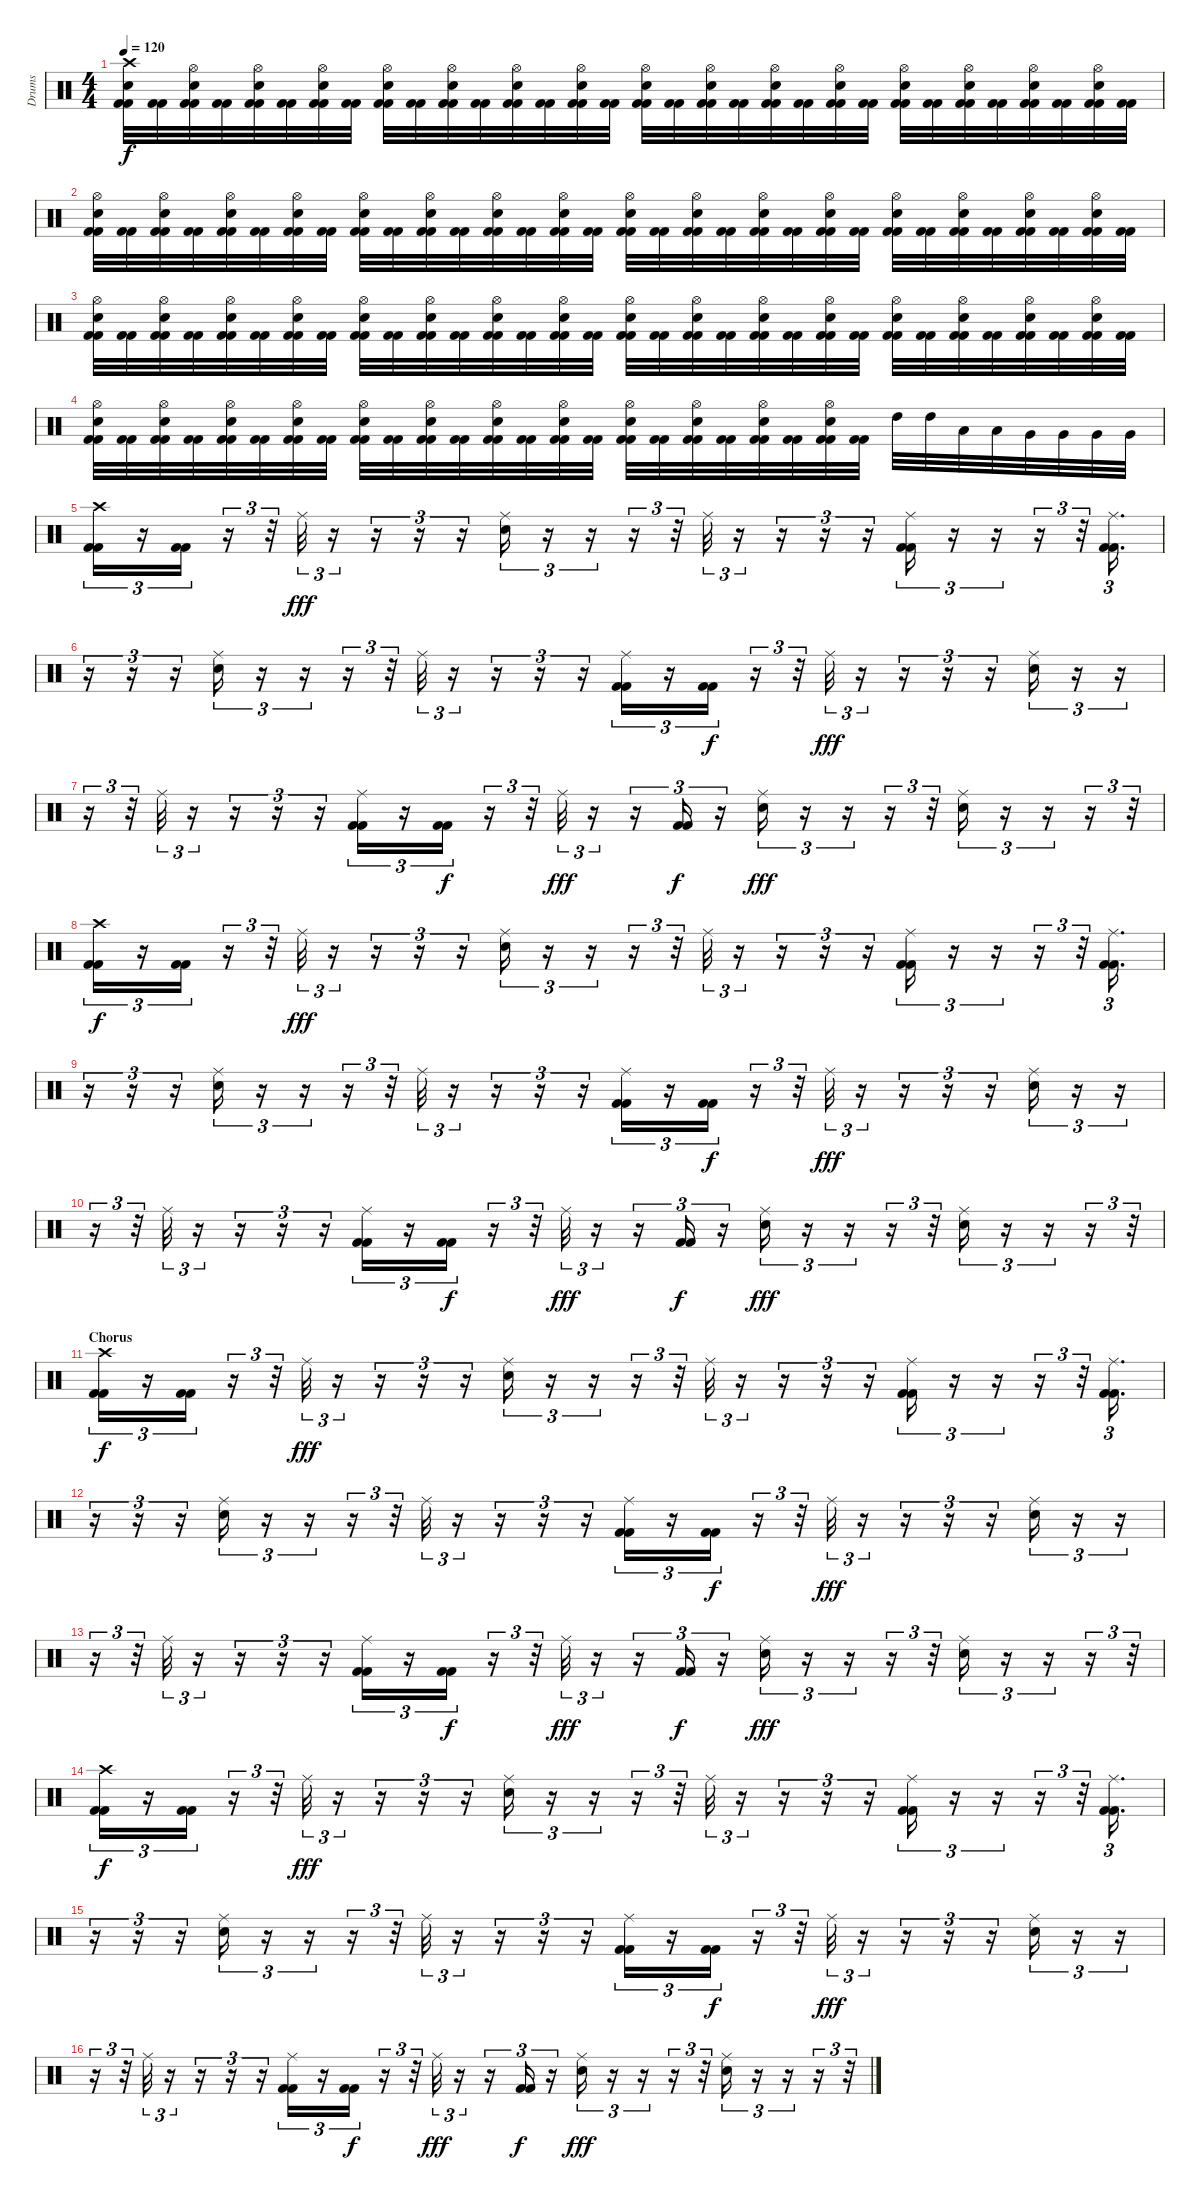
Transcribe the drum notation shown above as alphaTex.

\track ("Drums" "Drums") {instrument percussion}
\staff {score}
\articulation defaults
\ts (4 4)
\tempo 120
\clef neutral
\ks c
("Kick (hit) 2" "Kick (hit) 2" "Electric Snare (hit)" "Crash high (hit)").32{dy f} ("Kick (hit) 2" "Kick (hit) 2").32 ("Kick (hit) 2" "Kick (hit) 2" "Electric Snare (hit)" "Hi-Hat (open)").32 ("Kick (hit) 2" "Kick (hit) 2").32 ("Kick (hit) 2" "Kick (hit) 2" "Electric Snare (hit)" "Hi-Hat (open)").32 ("Kick (hit) 2" "Kick (hit) 2").32 ("Kick (hit) 2" "Kick (hit) 2" "Electric Snare (hit)" "Hi-Hat (open)").32 ("Kick (hit) 2" "Kick (hit) 2").32 ("Kick (hit) 2" "Kick (hit) 2" "Electric Snare (hit)" "Hi-Hat (open)").32 ("Kick (hit) 2" "Kick (hit) 2").32 ("Kick (hit) 2" "Kick (hit) 2" "Electric Snare (hit)" "Hi-Hat (open)").32 ("Kick (hit) 2" "Kick (hit) 2").32 ("Kick (hit) 2" "Kick (hit) 2" "Electric Snare (hit)" "Hi-Hat (open)").32 ("Kick (hit) 2" "Kick (hit) 2").32 ("Kick (hit) 2" "Kick (hit) 2" "Electric Snare (hit)" "Hi-Hat (open)").32 ("Kick (hit) 2" "Kick (hit) 2").32 ("Kick (hit) 2" "Kick (hit) 2" "Electric Snare (hit)" "Hi-Hat (open)").32 ("Kick (hit) 2" "Kick (hit) 2").32 ("Kick (hit) 2" "Kick (hit) 2" "Electric Snare (hit)" "Hi-Hat (open)").32 ("Kick (hit) 2" "Kick (hit) 2").32 ("Kick (hit) 2" "Kick (hit) 2" "Electric Snare (hit)" "Hi-Hat (open)").32 ("Kick (hit) 2" "Kick (hit) 2").32 ("Kick (hit) 2" "Kick (hit) 2" "Electric Snare (hit)" "Hi-Hat (open)").32 ("Kick (hit) 2" "Kick (hit) 2").32 ("Kick (hit) 2" "Kick (hit) 2" "Electric Snare (hit)" "Hi-Hat (open)").32 ("Kick (hit) 2" "Kick (hit) 2").32 ("Kick (hit) 2" "Kick (hit) 2" "Electric Snare (hit)" "Hi-Hat (open)").32 ("Kick (hit) 2" "Kick (hit) 2").32 ("Kick (hit) 2" "Kick (hit) 2" "Electric Snare (hit)" "Hi-Hat (open)").32 ("Kick (hit) 2" "Kick (hit) 2").32 ("Kick (hit) 2" "Kick (hit) 2" "Electric Snare (hit)" "Hi-Hat (open)").32 ("Kick (hit) 2" "Kick (hit) 2").32 |
("Kick (hit) 2" "Kick (hit) 2" "Electric Snare (hit)" "Hi-Hat (open)").32 ("Kick (hit) 2" "Kick (hit) 2").32 ("Kick (hit) 2" "Kick (hit) 2" "Electric Snare (hit)" "Hi-Hat (open)").32 ("Kick (hit) 2" "Kick (hit) 2").32 ("Kick (hit) 2" "Kick (hit) 2" "Electric Snare (hit)" "Hi-Hat (open)").32 ("Kick (hit) 2" "Kick (hit) 2").32 ("Kick (hit) 2" "Kick (hit) 2" "Electric Snare (hit)" "Hi-Hat (open)").32 ("Kick (hit) 2" "Kick (hit) 2").32 ("Kick (hit) 2" "Kick (hit) 2" "Electric Snare (hit)" "Hi-Hat (open)").32 ("Kick (hit) 2" "Kick (hit) 2").32 ("Kick (hit) 2" "Kick (hit) 2" "Electric Snare (hit)" "Hi-Hat (open)").32 ("Kick (hit) 2" "Kick (hit) 2").32 ("Kick (hit) 2" "Kick (hit) 2" "Electric Snare (hit)" "Hi-Hat (open)").32 ("Kick (hit) 2" "Kick (hit) 2").32 ("Kick (hit) 2" "Kick (hit) 2" "Electric Snare (hit)" "Hi-Hat (open)").32 ("Kick (hit) 2" "Kick (hit) 2").32 ("Kick (hit) 2" "Kick (hit) 2" "Electric Snare (hit)" "Hi-Hat (open)").32 ("Kick (hit) 2" "Kick (hit) 2").32 ("Kick (hit) 2" "Kick (hit) 2" "Electric Snare (hit)" "Hi-Hat (open)").32 ("Kick (hit) 2" "Kick (hit) 2").32 ("Kick (hit) 2" "Kick (hit) 2" "Electric Snare (hit)" "Hi-Hat (open)").32 ("Kick (hit) 2" "Kick (hit) 2").32 ("Kick (hit) 2" "Kick (hit) 2" "Electric Snare (hit)" "Hi-Hat (open)").32 ("Kick (hit) 2" "Kick (hit) 2").32 ("Kick (hit) 2" "Kick (hit) 2" "Electric Snare (hit)" "Hi-Hat (open)").32 ("Kick (hit) 2" "Kick (hit) 2").32 ("Kick (hit) 2" "Kick (hit) 2" "Electric Snare (hit)" "Hi-Hat (open)").32 ("Kick (hit) 2" "Kick (hit) 2").32 ("Kick (hit) 2" "Kick (hit) 2" "Electric Snare (hit)" "Hi-Hat (open)").32 ("Kick (hit) 2" "Kick (hit) 2").32 ("Kick (hit) 2" "Kick (hit) 2" "Electric Snare (hit)" "Hi-Hat (open)").32 ("Kick (hit) 2" "Kick (hit) 2").32 |
("Kick (hit) 2" "Kick (hit) 2" "Electric Snare (hit)" "Hi-Hat (open)").32 ("Kick (hit) 2" "Kick (hit) 2").32 ("Kick (hit) 2" "Kick (hit) 2" "Electric Snare (hit)" "Hi-Hat (open)").32 ("Kick (hit) 2" "Kick (hit) 2").32 ("Kick (hit) 2" "Kick (hit) 2" "Electric Snare (hit)" "Hi-Hat (open)").32 ("Kick (hit) 2" "Kick (hit) 2").32 ("Kick (hit) 2" "Kick (hit) 2" "Electric Snare (hit)" "Hi-Hat (open)").32 ("Kick (hit) 2" "Kick (hit) 2").32 ("Kick (hit) 2" "Kick (hit) 2" "Electric Snare (hit)" "Hi-Hat (open)").32 ("Kick (hit) 2" "Kick (hit) 2").32 ("Kick (hit) 2" "Kick (hit) 2" "Electric Snare (hit)" "Hi-Hat (open)").32 ("Kick (hit) 2" "Kick (hit) 2").32 ("Kick (hit) 2" "Kick (hit) 2" "Electric Snare (hit)" "Hi-Hat (open)").32 ("Kick (hit) 2" "Kick (hit) 2").32 ("Kick (hit) 2" "Kick (hit) 2" "Electric Snare (hit)" "Hi-Hat (open)").32 ("Kick (hit) 2" "Kick (hit) 2").32 ("Kick (hit) 2" "Kick (hit) 2" "Electric Snare (hit)" "Hi-Hat (open)").32 ("Kick (hit) 2" "Kick (hit) 2").32 ("Kick (hit) 2" "Kick (hit) 2" "Electric Snare (hit)" "Hi-Hat (open)").32 ("Kick (hit) 2" "Kick (hit) 2").32 ("Kick (hit) 2" "Kick (hit) 2" "Electric Snare (hit)" "Hi-Hat (open)").32 ("Kick (hit) 2" "Kick (hit) 2").32 ("Kick (hit) 2" "Kick (hit) 2" "Electric Snare (hit)" "Hi-Hat (open)").32 ("Kick (hit) 2" "Kick (hit) 2").32 ("Kick (hit) 2" "Kick (hit) 2" "Electric Snare (hit)" "Hi-Hat (open)").32 ("Kick (hit) 2" "Kick (hit) 2").32 ("Kick (hit) 2" "Kick (hit) 2" "Electric Snare (hit)" "Hi-Hat (open)").32 ("Kick (hit) 2" "Kick (hit) 2").32 ("Kick (hit) 2" "Kick (hit) 2" "Electric Snare (hit)" "Hi-Hat (open)").32 ("Kick (hit) 2" "Kick (hit) 2").32 ("Kick (hit) 2" "Kick (hit) 2" "Electric Snare (hit)" "Hi-Hat (open)").32 ("Kick (hit) 2" "Kick (hit) 2").32 |
("Kick (hit) 2" "Kick (hit) 2" "Electric Snare (hit)" "Hi-Hat (open)").32 ("Kick (hit) 2" "Kick (hit) 2").32 ("Kick (hit) 2" "Kick (hit) 2" "Electric Snare (hit)" "Hi-Hat (open)").32 ("Kick (hit) 2" "Kick (hit) 2").32 ("Kick (hit) 2" "Kick (hit) 2" "Electric Snare (hit)" "Hi-Hat (open)").32 ("Kick (hit) 2" "Kick (hit) 2").32 ("Kick (hit) 2" "Kick (hit) 2" "Electric Snare (hit)" "Hi-Hat (open)").32 ("Kick (hit) 2" "Kick (hit) 2").32 ("Kick (hit) 2" "Kick (hit) 2" "Electric Snare (hit)" "Hi-Hat (open)").32 ("Kick (hit) 2" "Kick (hit) 2").32 ("Kick (hit) 2" "Kick (hit) 2" "Electric Snare (hit)" "Hi-Hat (open)").32 ("Kick (hit) 2" "Kick (hit) 2").32 ("Kick (hit) 2" "Kick (hit) 2" "Electric Snare (hit)" "Hi-Hat (open)").32 ("Kick (hit) 2" "Kick (hit) 2").32 ("Kick (hit) 2" "Kick (hit) 2" "Electric Snare (hit)" "Hi-Hat (open)").32 ("Kick (hit) 2" "Kick (hit) 2").32 ("Kick (hit) 2" "Kick (hit) 2" "Electric Snare (hit)" "Hi-Hat (open)").32 ("Kick (hit) 2" "Kick (hit) 2").32 ("Kick (hit) 2" "Kick (hit) 2" "Electric Snare (hit)" "Hi-Hat (open)").32 ("Kick (hit) 2" "Kick (hit) 2").32 ("Kick (hit) 2" "Kick (hit) 2" "Electric Snare (hit)" "Hi-Hat (open)").32 ("Kick (hit) 2" "Kick (hit) 2").32 ("Kick (hit) 2" "Kick (hit) 2" "Electric Snare (hit)" "Hi-Hat (open)").32 ("Kick (hit) 2" "Kick (hit) 2").32 "High Tom (hit)".32 "High Tom (hit)".32 "Low Tom (hit)".32 "Low Tom (hit)".32 "Very Low Tom (hit)".32 "Very Low Tom (hit)".32 "Very Low Tom (hit)".32 "Very Low Tom (hit)".32 |
("Kick (hit) 2" "Kick (hit) 2" "Crash high (hit)").16{tu (3 2)} r.16{tu (3 2)} ("Kick (hit) 2" "Kick (hit) 2").16{tu (3 2)} r.16{tu (3 2)} r.32{tu (3 2)} "Ride (middle)".32{tu (3 2) dy fff} r.16{tu (3 2)} r.16{tu (3 2)} r.16{tu (3 2)} r.16{tu (3 2)} ("Electric Snare (hit)" "Ride (middle)").16{tu (3 2)} r.16{tu (3 2)} r.16{tu (3 2)} r.16{tu (3 2)} r.32{tu (3 2)} "Ride (middle)".32{tu (3 2)} r.16{tu (3 2)} r.16{tu (3 2)} r.16{tu (3 2)} r.16{tu (3 2)} ("Kick (hit) 2" "Kick (hit) 2" "Ride (middle)").16{tu (3 2)} r.16{tu (3 2)} r.16{tu (3 2)} r.16{tu (3 2)} r.32{tu (3 2)} ("Kick (hit) 2" "Kick (hit) 2" "Ride (middle)").16{d tu (3 2)} |
r.16{tu (3 2)} r.16{tu (3 2)} r.16{tu (3 2)} ("Electric Snare (hit)" "Ride (middle)").16{tu (3 2)} r.16{tu (3 2)} r.16{tu (3 2)} r.16{tu (3 2)} r.32{tu (3 2)} "Ride (middle)".32{tu (3 2)} r.16{tu (3 2)} r.16{tu (3 2)} r.16{tu (3 2)} r.16{tu (3 2)} ("Kick (hit) 2" "Kick (hit) 2" "Ride (middle)").16{tu (3 2)} r.16{tu (3 2)} ("Kick (hit) 2" "Kick (hit) 2").16{tu (3 2) dy f} r.16{tu (3 2)} r.32{tu (3 2)} "Ride (middle)".32{tu (3 2) dy fff} r.16{tu (3 2)} r.16{tu (3 2)} r.16{tu (3 2)} r.16{tu (3 2)} ("Electric Snare (hit)" "Ride (middle)").16{tu (3 2)} r.16{tu (3 2)} r.16{tu (3 2)} |
r.16{tu (3 2)} r.32{tu (3 2)} "Ride (middle)".32{tu (3 2)} r.16{tu (3 2)} r.16{tu (3 2)} r.16{tu (3 2)} r.16{tu (3 2)} ("Kick (hit) 2" "Kick (hit) 2" "Ride (middle)").16{tu (3 2)} r.16{tu (3 2)} ("Kick (hit) 2" "Kick (hit) 2").16{tu (3 2) dy f} r.16{tu (3 2)} r.32{tu (3 2)} "Ride (middle)".32{tu (3 2) dy fff} r.16{tu (3 2)} r.16{tu (3 2)} ("Kick (hit) 2" "Kick (hit) 2").16{tu (3 2) dy f} r.16{tu (3 2)} ("Electric Snare (hit)" "Ride (middle)").16{tu (3 2) dy fff} r.16{tu (3 2)} r.16{tu (3 2)} r.16{tu (3 2)} r.32{tu (3 2)} ("Electric Snare (hit)" "Ride (middle)").16{tu (3 2)} r.16{tu (3 2)} r.16{tu (3 2)} r.16{tu (3 2)} r.32{tu (3 2)} |
("Kick (hit) 2" "Kick (hit) 2" "Crash high (hit)").16{tu (3 2) dy f} r.16{tu (3 2)} ("Kick (hit) 2" "Kick (hit) 2").16{tu (3 2)} r.16{tu (3 2)} r.32{tu (3 2)} "Ride (middle)".32{tu (3 2) dy fff} r.16{tu (3 2)} r.16{tu (3 2)} r.16{tu (3 2)} r.16{tu (3 2)} ("Electric Snare (hit)" "Ride (middle)").16{tu (3 2)} r.16{tu (3 2)} r.16{tu (3 2)} r.16{tu (3 2)} r.32{tu (3 2)} "Ride (middle)".32{tu (3 2)} r.16{tu (3 2)} r.16{tu (3 2)} r.16{tu (3 2)} r.16{tu (3 2)} ("Kick (hit) 2" "Kick (hit) 2" "Ride (middle)").16{tu (3 2)} r.16{tu (3 2)} r.16{tu (3 2)} r.16{tu (3 2)} r.32{tu (3 2)} ("Kick (hit) 2" "Kick (hit) 2" "Ride (middle)").16{d tu (3 2)} |
r.16{tu (3 2)} r.16{tu (3 2)} r.16{tu (3 2)} ("Electric Snare (hit)" "Ride (middle)").16{tu (3 2)} r.16{tu (3 2)} r.16{tu (3 2)} r.16{tu (3 2)} r.32{tu (3 2)} "Ride (middle)".32{tu (3 2)} r.16{tu (3 2)} r.16{tu (3 2)} r.16{tu (3 2)} r.16{tu (3 2)} ("Kick (hit) 2" "Kick (hit) 2" "Ride (middle)").16{tu (3 2)} r.16{tu (3 2)} ("Kick (hit) 2" "Kick (hit) 2").16{tu (3 2) dy f} r.16{tu (3 2)} r.32{tu (3 2)} "Ride (middle)".32{tu (3 2) dy fff} r.16{tu (3 2)} r.16{tu (3 2)} r.16{tu (3 2)} r.16{tu (3 2)} ("Electric Snare (hit)" "Ride (middle)").16{tu (3 2)} r.16{tu (3 2)} r.16{tu (3 2)} |
r.16{tu (3 2)} r.32{tu (3 2)} "Ride (middle)".32{tu (3 2)} r.16{tu (3 2)} r.16{tu (3 2)} r.16{tu (3 2)} r.16{tu (3 2)} ("Kick (hit) 2" "Kick (hit) 2" "Ride (middle)").16{tu (3 2)} r.16{tu (3 2)} ("Kick (hit) 2" "Kick (hit) 2").16{tu (3 2) dy f} r.16{tu (3 2)} r.32{tu (3 2)} "Ride (middle)".32{tu (3 2) dy fff} r.16{tu (3 2)} r.16{tu (3 2)} ("Kick (hit) 2" "Kick (hit) 2").16{tu (3 2) dy f} r.16{tu (3 2)} ("Electric Snare (hit)" "Ride (middle)").16{tu (3 2) dy fff} r.16{tu (3 2)} r.16{tu (3 2)} r.16{tu (3 2)} r.32{tu (3 2)} ("Electric Snare (hit)" "Ride (middle)").16{tu (3 2)} r.16{tu (3 2)} r.16{tu (3 2)} r.16{tu (3 2)} r.32{tu (3 2)} |
\section ("" "Chorus")
("Kick (hit) 2" "Kick (hit) 2" "Crash high (hit)").16{tu (3 2) dy f} r.16{tu (3 2)} ("Kick (hit) 2" "Kick (hit) 2").16{tu (3 2)} r.16{tu (3 2)} r.32{tu (3 2)} "Ride (middle)".32{tu (3 2) dy fff} r.16{tu (3 2)} r.16{tu (3 2)} r.16{tu (3 2)} r.16{tu (3 2)} ("Electric Snare (hit)" "Ride (middle)").16{tu (3 2)} r.16{tu (3 2)} r.16{tu (3 2)} r.16{tu (3 2)} r.32{tu (3 2)} "Ride (middle)".32{tu (3 2)} r.16{tu (3 2)} r.16{tu (3 2)} r.16{tu (3 2)} r.16{tu (3 2)} ("Kick (hit) 2" "Kick (hit) 2" "Ride (middle)").16{tu (3 2)} r.16{tu (3 2)} r.16{tu (3 2)} r.16{tu (3 2)} r.32{tu (3 2)} ("Kick (hit) 2" "Kick (hit) 2" "Ride (middle)").16{d tu (3 2)} |
r.16{tu (3 2)} r.16{tu (3 2)} r.16{tu (3 2)} ("Electric Snare (hit)" "Ride (middle)").16{tu (3 2)} r.16{tu (3 2)} r.16{tu (3 2)} r.16{tu (3 2)} r.32{tu (3 2)} "Ride (middle)".32{tu (3 2)} r.16{tu (3 2)} r.16{tu (3 2)} r.16{tu (3 2)} r.16{tu (3 2)} ("Kick (hit) 2" "Kick (hit) 2" "Ride (middle)").16{tu (3 2)} r.16{tu (3 2)} ("Kick (hit) 2" "Kick (hit) 2").16{tu (3 2) dy f} r.16{tu (3 2)} r.32{tu (3 2)} "Ride (middle)".32{tu (3 2) dy fff} r.16{tu (3 2)} r.16{tu (3 2)} r.16{tu (3 2)} r.16{tu (3 2)} ("Electric Snare (hit)" "Ride (middle)").16{tu (3 2)} r.16{tu (3 2)} r.16{tu (3 2)} |
r.16{tu (3 2)} r.32{tu (3 2)} "Ride (middle)".32{tu (3 2)} r.16{tu (3 2)} r.16{tu (3 2)} r.16{tu (3 2)} r.16{tu (3 2)} ("Kick (hit) 2" "Kick (hit) 2" "Ride (middle)").16{tu (3 2)} r.16{tu (3 2)} ("Kick (hit) 2" "Kick (hit) 2").16{tu (3 2) dy f} r.16{tu (3 2)} r.32{tu (3 2)} "Ride (middle)".32{tu (3 2) dy fff} r.16{tu (3 2)} r.16{tu (3 2)} ("Kick (hit) 2" "Kick (hit) 2").16{tu (3 2) dy f} r.16{tu (3 2)} ("Electric Snare (hit)" "Ride (middle)").16{tu (3 2) dy fff} r.16{tu (3 2)} r.16{tu (3 2)} r.16{tu (3 2)} r.32{tu (3 2)} ("Electric Snare (hit)" "Ride (middle)").16{tu (3 2)} r.16{tu (3 2)} r.16{tu (3 2)} r.16{tu (3 2)} r.32{tu (3 2)} |
("Kick (hit) 2" "Kick (hit) 2" "Crash high (hit)").16{tu (3 2) dy f} r.16{tu (3 2)} ("Kick (hit) 2" "Kick (hit) 2").16{tu (3 2)} r.16{tu (3 2)} r.32{tu (3 2)} "Ride (middle)".32{tu (3 2) dy fff} r.16{tu (3 2)} r.16{tu (3 2)} r.16{tu (3 2)} r.16{tu (3 2)} ("Electric Snare (hit)" "Ride (middle)").16{tu (3 2)} r.16{tu (3 2)} r.16{tu (3 2)} r.16{tu (3 2)} r.32{tu (3 2)} "Ride (middle)".32{tu (3 2)} r.16{tu (3 2)} r.16{tu (3 2)} r.16{tu (3 2)} r.16{tu (3 2)} ("Kick (hit) 2" "Kick (hit) 2" "Ride (middle)").16{tu (3 2)} r.16{tu (3 2)} r.16{tu (3 2)} r.16{tu (3 2)} r.32{tu (3 2)} ("Kick (hit) 2" "Kick (hit) 2" "Ride (middle)").16{d tu (3 2)} |
r.16{tu (3 2)} r.16{tu (3 2)} r.16{tu (3 2)} ("Electric Snare (hit)" "Ride (middle)").16{tu (3 2)} r.16{tu (3 2)} r.16{tu (3 2)} r.16{tu (3 2)} r.32{tu (3 2)} "Ride (middle)".32{tu (3 2)} r.16{tu (3 2)} r.16{tu (3 2)} r.16{tu (3 2)} r.16{tu (3 2)} ("Kick (hit) 2" "Kick (hit) 2" "Ride (middle)").16{tu (3 2)} r.16{tu (3 2)} ("Kick (hit) 2" "Kick (hit) 2").16{tu (3 2) dy f} r.16{tu (3 2)} r.32{tu (3 2)} "Ride (middle)".32{tu (3 2) dy fff} r.16{tu (3 2)} r.16{tu (3 2)} r.16{tu (3 2)} r.16{tu (3 2)} ("Electric Snare (hit)" "Ride (middle)").16{tu (3 2)} r.16{tu (3 2)} r.16{tu (3 2)} |
r.16{tu (3 2)} r.32{tu (3 2)} "Ride (middle)".32{tu (3 2)} r.16{tu (3 2)} r.16{tu (3 2)} r.16{tu (3 2)} r.16{tu (3 2)} ("Kick (hit) 2" "Kick (hit) 2" "Ride (middle)").16{tu (3 2)} r.16{tu (3 2)} ("Kick (hit) 2" "Kick (hit) 2").16{tu (3 2) dy f} r.16{tu (3 2)} r.32{tu (3 2)} "Ride (middle)".32{tu (3 2) dy fff} r.16{tu (3 2)} r.16{tu (3 2)} ("Kick (hit) 2" "Kick (hit) 2").16{tu (3 2) dy f} r.16{tu (3 2)} ("Electric Snare (hit)" "Ride (middle)").16{tu (3 2) dy fff} r.16{tu (3 2)} r.16{tu (3 2)} r.16{tu (3 2)} r.32{tu (3 2)} ("Electric Snare (hit)" "Ride (middle)").16{tu (3 2)} r.16{tu (3 2)} r.16{tu (3 2)} r.16{tu (3 2)} r.32{tu (3 2)}
